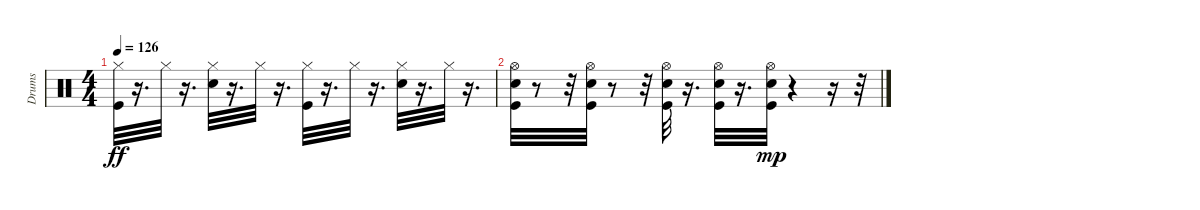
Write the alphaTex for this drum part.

\track ("Drums" "Drums") {instrument percussion}
\staff {score}
\articulation defaults
\ts (4 4)
\tempo 126
\clef neutral
\ks c
("Kick (hit)" "Hi-Hat (closed)").32{dy ff} r.16{d} "Hi-Hat (closed)".32 r.16{d} ("Snare (hit) 2" "Hi-Hat (closed)").32 r.16{d} "Hi-Hat (closed)".32 r.16{d} ("Kick (hit)" "Hi-Hat (closed)").32 r.16{d} "Hi-Hat (closed)".32 r.16{d} ("Snare (hit) 2" "Hi-Hat (closed)").32 r.16{d} "Hi-Hat (closed)".32 r.16{d} |
("Kick (hit)" "Snare (hit) 2" "Hi-Hat (open)").32 r.8 r.32 ("Kick (hit)" "Snare (hit) 2" "Hi-Hat (open)").32 r.8 r.32 ("Kick (hit)" "Snare (hit) 2" "Hi-Hat (open)").32 r.16{d} ("Kick (hit)" "Snare (hit) 2" "Hi-Hat (open)").32 r.16{d} ("Kick (hit)" "Snare (hit) 2" "Hi-Hat (open)").32{dy mp} r.4 r.16 r.32
